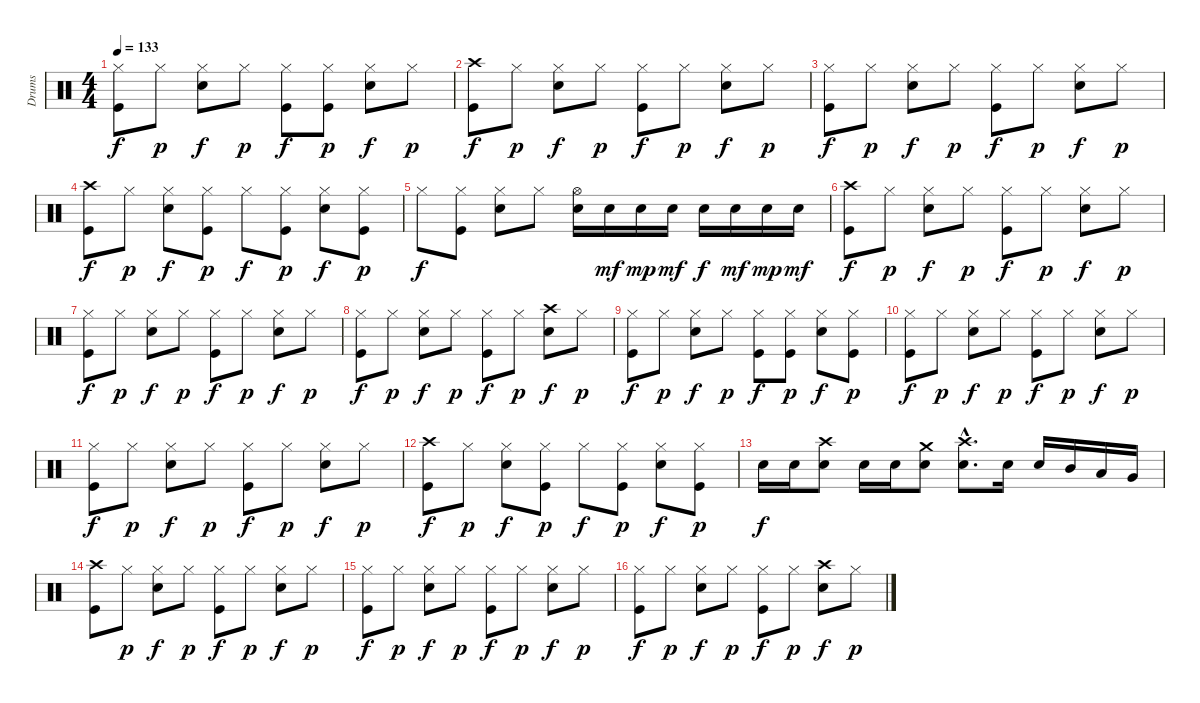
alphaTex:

\track ("Drums" "Drums") {instrument percussion}
\staff {score}
\articulation defaults
\ts (4 4)
\tempo 133
\clef neutral
\ks c
("Hi-Hat (closed)" "Kick (hit)").8{dy f} "Hi-Hat (closed)".8{dy p} ("Hi-Hat (closed)" "Snare (hit) 2").8{dy f} "Hi-Hat (closed)".8{dy p} ("Hi-Hat (closed)" "Kick (hit)").8{dy f} ("Hi-Hat (closed)" "Kick (hit)").8{dy p} ("Hi-Hat (closed)" "Snare (hit) 2").8{dy f} "Hi-Hat (closed)".8{dy p} |
("Crash high (hit)" "Kick (hit)").8{dy f} "Hi-Hat (closed)".8{dy p} ("Hi-Hat (closed)" "Snare (hit) 2").8{dy f} "Hi-Hat (closed)".8{dy p} ("Hi-Hat (closed)" "Kick (hit)").8{dy f} "Hi-Hat (closed)".8{dy p} ("Hi-Hat (closed)" "Snare (hit) 2").8{dy f} "Hi-Hat (closed)".8{dy p} |
("Hi-Hat (closed)" "Kick (hit)").8{dy f} "Hi-Hat (closed)".8{dy p} ("Hi-Hat (closed)" "Snare (hit) 2").8{dy f} "Hi-Hat (closed)".8{dy p} ("Hi-Hat (closed)" "Kick (hit)").8{dy f} "Hi-Hat (closed)".8{dy p} ("Hi-Hat (closed)" "Snare (hit) 2").8{dy f} "Hi-Hat (closed)".8{dy p} |
("Crash high (hit)" "Kick (hit)").8{dy f} "Hi-Hat (closed)".8{dy p} ("Hi-Hat (closed)" "Snare (hit) 2").8{dy f} ("Hi-Hat (closed)" "Kick (hit)").8{dy p} "Hi-Hat (closed)".8{dy f} ("Hi-Hat (closed)" "Kick (hit)").8{dy p} ("Hi-Hat (closed)" "Snare (hit) 2").8{dy f} ("Hi-Hat (closed)" "Kick (hit)").8{dy p} |
"Hi-Hat (closed)".8{dy f} ("Hi-Hat (closed)" "Kick (hit)").8 ("Hi-Hat (closed)" "Snare (hit) 2").8 "Hi-Hat (closed)".8 ("Hi-Hat (open)" "Snare (hit) 2").16 "Snare (hit) 2".16{dy mf} "Snare (hit) 2".16{dy mp} "Snare (hit) 2".16{dy mf} "Snare (hit) 2".16{dy f} "Snare (hit) 2".16{dy mf} "Snare (hit) 2".16{dy mp} "Snare (hit) 2".16{dy mf} |
("Crash high (hit)" "Kick (hit)").8{dy f} "Hi-Hat (closed)".8{dy p} ("Hi-Hat (closed)" "Snare (hit) 2").8{dy f} "Hi-Hat (closed)".8{dy p} ("Hi-Hat (closed)" "Kick (hit)").8{dy f} "Hi-Hat (closed)".8{dy p} ("Hi-Hat (closed)" "Snare (hit) 2").8{dy f} "Hi-Hat (closed)".8{dy p} |
("Hi-Hat (closed)" "Kick (hit)").8{dy f} "Hi-Hat (closed)".8{dy p} ("Hi-Hat (closed)" "Snare (hit) 2").8{dy f} "Hi-Hat (closed)".8{dy p} ("Hi-Hat (closed)" "Kick (hit)").8{dy f} "Hi-Hat (closed)".8{dy p} ("Hi-Hat (closed)" "Snare (hit) 2").8{dy f} "Hi-Hat (closed)".8{dy p} |
("Hi-Hat (closed)" "Kick (hit)").8{dy f} "Hi-Hat (closed)".8{dy p} ("Hi-Hat (closed)" "Snare (hit) 2").8{dy f} "Hi-Hat (closed)".8{dy p} ("Hi-Hat (closed)" "Kick (hit)").8{dy f} "Hi-Hat (closed)".8{dy p} ("Crash high (hit)" "Snare (hit) 2").8{dy f} "Hi-Hat (closed)".8{dy p} |
("Hi-Hat (closed)" "Kick (hit)").8{dy f} "Hi-Hat (closed)".8{dy p} ("Hi-Hat (closed)" "Snare (hit) 2").8{dy f} "Hi-Hat (closed)".8{dy p} ("Hi-Hat (closed)" "Kick (hit)").8{dy f} ("Hi-Hat (closed)" "Kick (hit)").8{dy p} ("Hi-Hat (closed)" "Snare (hit) 2").8{dy f} ("Hi-Hat (closed)" "Kick (hit)").8{dy p} |
("Hi-Hat (closed)" "Kick (hit)").8{dy f} "Hi-Hat (closed)".8{dy p} ("Hi-Hat (closed)" "Snare (hit) 2").8{dy f} "Hi-Hat (closed)".8{dy p} ("Hi-Hat (closed)" "Kick (hit)").8{dy f} "Hi-Hat (closed)".8{dy p} ("Hi-Hat (closed)" "Snare (hit) 2").8{dy f} "Hi-Hat (closed)".8{dy p} |
("Hi-Hat (closed)" "Kick (hit)").8{dy f} "Hi-Hat (closed)".8{dy p} ("Hi-Hat (closed)" "Snare (hit) 2").8{dy f} "Hi-Hat (closed)".8{dy p} ("Hi-Hat (closed)" "Kick (hit)").8{dy f} "Hi-Hat (closed)".8{dy p} ("Hi-Hat (closed)" "Snare (hit) 2").8{dy f} "Hi-Hat (closed)".8{dy p} |
("Crash high (hit)" "Kick (hit)").8{dy f} "Hi-Hat (closed)".8{dy p} ("Hi-Hat (closed)" "Snare (hit) 2").8{dy f} ("Hi-Hat (closed)" "Kick (hit)").8{dy p} "Hi-Hat (closed)".8{dy f} ("Hi-Hat (closed)" "Kick (hit)").8{dy p} ("Hi-Hat (closed)" "Snare (hit) 2").8{dy f} ("Hi-Hat (closed)" "Kick (hit)").8{dy p} |
"Snare (hit) 2".16{dy f} "Snare (hit) 2".16 ("Crash high (hit)" "Snare (hit) 2").8 "Snare (hit) 2".16 "Snare (hit) 2".16 ("Crash medium (hit)" "Snare (hit) 2").8 ("Crash high (hit)"{hac} "Snare (hit) 2"{hac}).8{d} "Snare (hit) 2".16 "Snare (hit) 2".16 "Mid Tom (hit)".16 "Low Tom (hit)".16 "Very Low Tom (hit)".16 |
("Crash high (hit)" "Kick (hit)").8 "Hi-Hat (closed)".8{dy p} ("Hi-Hat (closed)" "Snare (hit) 2").8{dy f} "Hi-Hat (closed)".8{dy p} ("Hi-Hat (closed)" "Kick (hit)").8{dy f} "Hi-Hat (closed)".8{dy p} ("Hi-Hat (closed)" "Snare (hit) 2").8{dy f} "Hi-Hat (closed)".8{dy p} |
("Hi-Hat (closed)" "Kick (hit)").8{dy f} "Hi-Hat (closed)".8{dy p} ("Hi-Hat (closed)" "Snare (hit) 2").8{dy f} "Hi-Hat (closed)".8{dy p} ("Hi-Hat (closed)" "Kick (hit)").8{dy f} "Hi-Hat (closed)".8{dy p} ("Hi-Hat (closed)" "Snare (hit) 2").8{dy f} "Hi-Hat (closed)".8{dy p} |
("Hi-Hat (closed)" "Kick (hit)").8{dy f} "Hi-Hat (closed)".8{dy p} ("Hi-Hat (closed)" "Snare (hit) 2").8{dy f} "Hi-Hat (closed)".8{dy p} ("Hi-Hat (closed)" "Kick (hit)").8{dy f} "Hi-Hat (closed)".8{dy p} ("Crash high (hit)" "Snare (hit) 2").8{dy f} "Hi-Hat (closed)".8{dy p}
